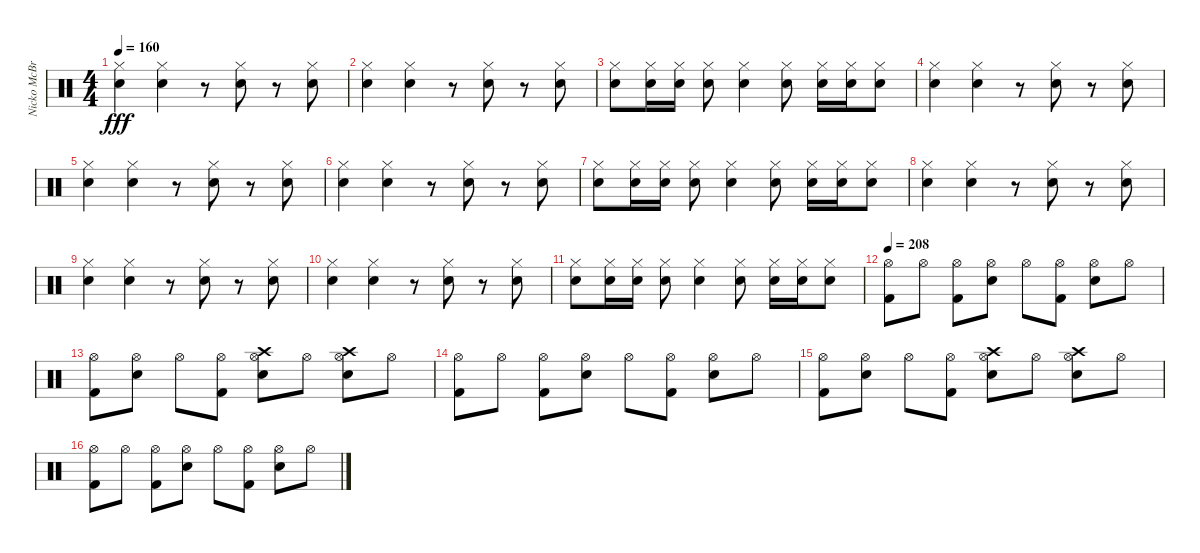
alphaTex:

\track ("Nicko McBrain" "Nicko McBr") {instrument percussion}
\staff {score}
\articulation defaults
\ts (4 4)
\tempo 160
\clef neutral
\ks c
("Hi-Hat (closed)" "Snare (hit) 2").4{dy fff} ("Hi-Hat (closed)" "Snare (hit) 2").4 r.8 ("Hi-Hat (closed)" "Snare (hit) 2").8 r.8 ("Hi-Hat (closed)" "Snare (hit) 2").8 |
("Hi-Hat (closed)" "Snare (hit) 2").4 ("Hi-Hat (closed)" "Snare (hit) 2").4 r.8 ("Hi-Hat (closed)" "Snare (hit) 2").8 r.8 ("Hi-Hat (closed)" "Snare (hit) 2").8 |
("Hi-Hat (closed)" "Snare (hit) 2").8 ("Hi-Hat (closed)" "Snare (hit) 2").16 ("Hi-Hat (closed)" "Snare (hit) 2").16 ("Hi-Hat (closed)" "Snare (hit) 2").8 ("Hi-Hat (closed)" "Snare (hit) 2").4 ("Hi-Hat (closed)" "Snare (hit) 2").8 ("Hi-Hat (closed)" "Snare (hit) 2").16 ("Hi-Hat (closed)" "Snare (hit) 2").16 ("Hi-Hat (closed)" "Snare (hit) 2").8 |
("Hi-Hat (closed)" "Snare (hit) 2").4 ("Hi-Hat (closed)" "Snare (hit) 2").4 r.8 ("Hi-Hat (closed)" "Snare (hit) 2").8 r.8 ("Hi-Hat (closed)" "Snare (hit) 2").8 |
("Hi-Hat (closed)" "Snare (hit) 2").4 ("Hi-Hat (closed)" "Snare (hit) 2").4 r.8 ("Hi-Hat (closed)" "Snare (hit) 2").8 r.8 ("Hi-Hat (closed)" "Snare (hit) 2").8 |
("Hi-Hat (closed)" "Snare (hit) 2").4 ("Hi-Hat (closed)" "Snare (hit) 2").4 r.8 ("Hi-Hat (closed)" "Snare (hit) 2").8 r.8 ("Hi-Hat (closed)" "Snare (hit) 2").8 |
("Hi-Hat (closed)" "Snare (hit) 2").8 ("Hi-Hat (closed)" "Snare (hit) 2").16 ("Hi-Hat (closed)" "Snare (hit) 2").16 ("Hi-Hat (closed)" "Snare (hit) 2").8 ("Hi-Hat (closed)" "Snare (hit) 2").4 ("Hi-Hat (closed)" "Snare (hit) 2").8 ("Hi-Hat (closed)" "Snare (hit) 2").16 ("Hi-Hat (closed)" "Snare (hit) 2").16 ("Hi-Hat (closed)" "Snare (hit) 2").8 |
("Hi-Hat (closed)" "Snare (hit) 2").4 ("Hi-Hat (closed)" "Snare (hit) 2").4 r.8 ("Hi-Hat (closed)" "Snare (hit) 2").8 r.8 ("Hi-Hat (closed)" "Snare (hit) 2").8 |
("Hi-Hat (closed)" "Snare (hit) 2").4 ("Hi-Hat (closed)" "Snare (hit) 2").4 r.8 ("Hi-Hat (closed)" "Snare (hit) 2").8 r.8 ("Hi-Hat (closed)" "Snare (hit) 2").8 |
("Hi-Hat (closed)" "Snare (hit) 2").4 ("Hi-Hat (closed)" "Snare (hit) 2").4 r.8 ("Hi-Hat (closed)" "Snare (hit) 2").8 r.8 ("Hi-Hat (closed)" "Snare (hit) 2").8 |
("Hi-Hat (closed)" "Snare (hit) 2").8 ("Hi-Hat (closed)" "Snare (hit) 2").16 ("Hi-Hat (closed)" "Snare (hit) 2").16 ("Hi-Hat (closed)" "Snare (hit) 2").8 ("Hi-Hat (closed)" "Snare (hit) 2").4 ("Hi-Hat (closed)" "Snare (hit) 2").8 ("Hi-Hat (closed)" "Snare (hit) 2").16 ("Hi-Hat (closed)" "Snare (hit) 2").16 ("Hi-Hat (closed)" "Snare (hit) 2").8 |
\tempo 208
("Hi-Hat (open)" "Kick (hit) 2").8 "Hi-Hat (open)".8 ("Hi-Hat (open)" "Kick (hit) 2").8 ("Hi-Hat (open)" "Snare (hit) 2").8 "Hi-Hat (open)".8 ("Hi-Hat (open)" "Kick (hit) 2").8 ("Hi-Hat (open)" "Snare (hit) 2").8 "Hi-Hat (open)".8 |
("Hi-Hat (open)" "Kick (hit) 2").8 ("Hi-Hat (open)" "Snare (hit) 2").8 "Hi-Hat (open)".8 ("Hi-Hat (open)" "Kick (hit) 2").8 ("Hi-Hat (open)" "Snare (hit) 2" "Crash high (hit)").8 "Hi-Hat (open)".8 ("Hi-Hat (open)" "Snare (hit) 2" "Crash high (hit)").8 "Hi-Hat (open)".8 |
("Hi-Hat (open)" "Kick (hit) 2").8 "Hi-Hat (open)".8 ("Hi-Hat (open)" "Kick (hit) 2").8 ("Hi-Hat (open)" "Snare (hit) 2").8 "Hi-Hat (open)".8 ("Hi-Hat (open)" "Kick (hit) 2").8 ("Hi-Hat (open)" "Snare (hit) 2").8 "Hi-Hat (open)".8 |
("Hi-Hat (open)" "Kick (hit) 2").8 ("Hi-Hat (open)" "Snare (hit) 2").8 "Hi-Hat (open)".8 ("Hi-Hat (open)" "Kick (hit) 2").8 ("Hi-Hat (open)" "Snare (hit) 2" "Crash high (hit)").8 "Hi-Hat (open)".8 ("Hi-Hat (open)" "Snare (hit) 2" "Crash high (hit)").8 "Hi-Hat (open)".8 |
("Hi-Hat (open)" "Kick (hit) 2").8 "Hi-Hat (open)".8 ("Hi-Hat (open)" "Kick (hit) 2").8 ("Hi-Hat (open)" "Snare (hit) 2").8 "Hi-Hat (open)".8 ("Hi-Hat (open)" "Kick (hit) 2").8 ("Hi-Hat (open)" "Snare (hit) 2").8 "Hi-Hat (open)".8
